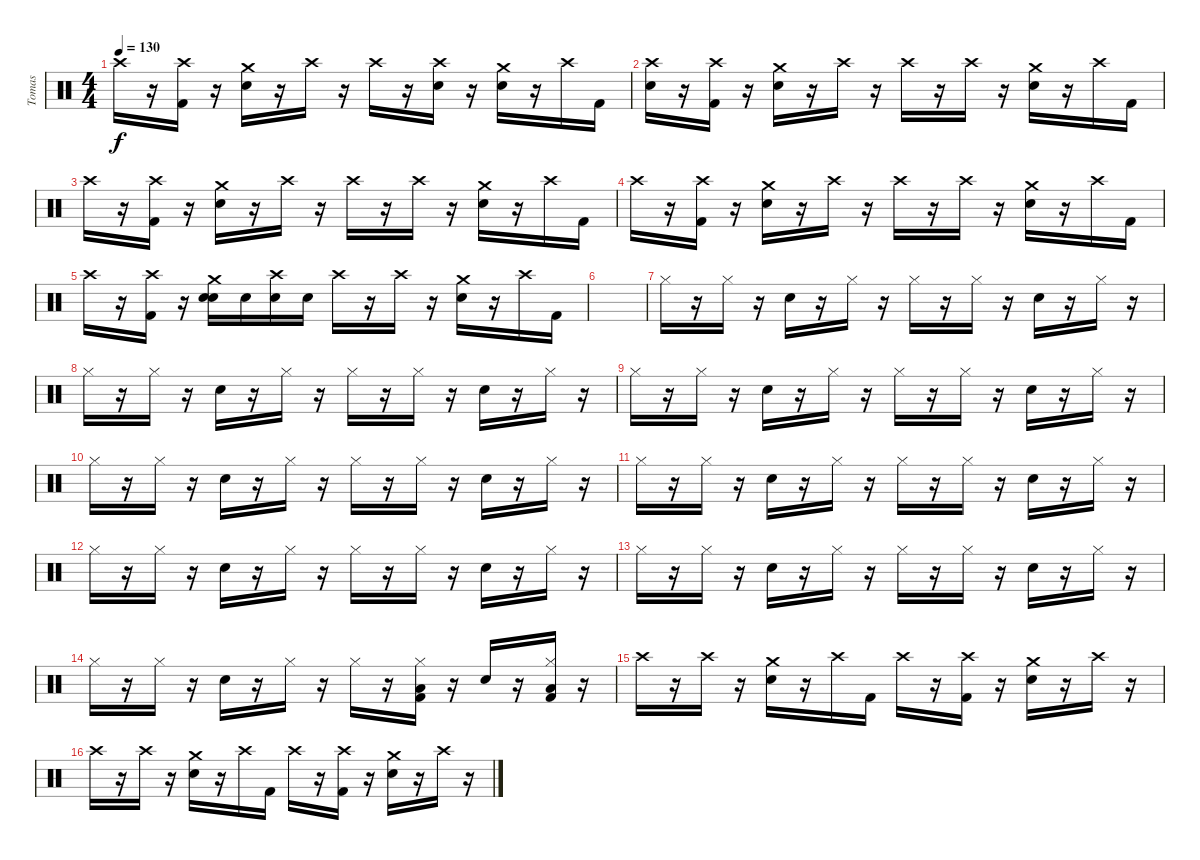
\track ("Tomas" "Tomas") {instrument percussion}
\staff {score}
\articulation defaults
\ts (4 4)
\tempo 130
\clef neutral
\ks c "Crash high (hit)".16{dy f}
r.16 ("Kick (hit) 2" "Crash high (hit)").16 r.16 ("Electric Snare (hit)" "Crash medium (hit)").16 r.16 "Crash high (hit)".16 r.16 "Crash high (hit)".16 r.16 ("Snare (hit) 2" "Crash high (hit)").16 r.16 ("Electric Snare (hit)" "Crash medium (hit)").16 r.16 "Crash high (hit)".16 "Kick (hit) 2".16 |
("Snare (hit) 2" "Crash high (hit)").16 r.16 ("Kick (hit) 2" "Crash high (hit)").16 r.16 ("Electric Snare (hit)" "Crash medium (hit)").16 r.16 "Crash high (hit)".16 r.16 "Crash high (hit)".16 r.16 "Crash high (hit)".16 r.16 ("Electric Snare (hit)" "Crash medium (hit)").16 r.16 "Crash high (hit)".16 "Kick (hit) 2".16 |
"Crash high (hit)".16 r.16 ("Kick (hit) 2" "Crash high (hit)").16 r.16 ("Electric Snare (hit)" "Crash medium (hit)").16 r.16 "Crash high (hit)".16 r.16 "Crash high (hit)".16 r.16 "Crash high (hit)".16 r.16 ("Electric Snare (hit)" "Crash medium (hit)").16 r.16 "Crash high (hit)".16 "Kick (hit) 2".16 |
"Crash high (hit)".16 r.16 ("Kick (hit) 2" "Crash high (hit)").16 r.16 ("Electric Snare (hit)" "Crash medium (hit)").16 r.16 "Crash high (hit)".16 r.16 "Crash high (hit)".16 r.16 "Crash high (hit)".16 r.16 ("Electric Snare (hit)" "Crash medium (hit)").16 r.16 "Crash high (hit)".16 "Kick (hit) 2".16 |
"Crash high (hit)".16 r.16 ("Kick (hit) 2" "Crash high (hit)").16 r.16 ("Electric Snare (hit)" "Crash medium (hit)" "Snare (hit) 2").16 "Snare (hit) 2".16 ("Crash high (hit)" "Snare (hit) 2").16 "Snare (hit) 2".16 "Crash high (hit)".16 r.16 "Crash high (hit)".16 r.16 ("Electric Snare (hit)" "Crash medium (hit)").16 r.16 "Crash high (hit)".16 "Kick (hit) 2".16 |
|
"Hi-Hat (closed)".16 r.16 "Hi-Hat (closed)".16 r.16 "Electric Snare (hit)".16 r.16 "Hi-Hat (closed)".16 r.16 "Hi-Hat (closed)".16 r.16 "Hi-Hat (closed)".16 r.16 "Electric Snare (hit)".16 r.16 "Hi-Hat (closed)".16 r.16 |
"Hi-Hat (closed)".16 r.16 "Hi-Hat (closed)".16 r.16 "Electric Snare (hit)".16 r.16 "Hi-Hat (closed)".16 r.16 "Hi-Hat (closed)".16 r.16 "Hi-Hat (closed)".16 r.16 "Electric Snare (hit)".16 r.16 "Hi-Hat (closed)".16 r.16 |
"Hi-Hat (closed)".16 r.16 "Hi-Hat (closed)".16 r.16 "Electric Snare (hit)".16 r.16 "Hi-Hat (closed)".16 r.16 "Hi-Hat (closed)".16 r.16 "Hi-Hat (closed)".16 r.16 "Electric Snare (hit)".16 r.16 "Hi-Hat (closed)".16 r.16 |
"Hi-Hat (closed)".16 r.16 "Hi-Hat (closed)".16 r.16 "Electric Snare (hit)".16 r.16 "Hi-Hat (closed)".16 r.16 "Hi-Hat (closed)".16 r.16 "Hi-Hat (closed)".16 r.16 "Electric Snare (hit)".16 r.16 "Hi-Hat (closed)".16 r.16 |
"Hi-Hat (closed)".16 r.16 "Hi-Hat (closed)".16 r.16 "Electric Snare (hit)".16 r.16 "Hi-Hat (closed)".16 r.16 "Hi-Hat (closed)".16 r.16 "Hi-Hat (closed)".16 r.16 "Electric Snare (hit)".16 r.16 "Hi-Hat (closed)".16 r.16 |
"Hi-Hat (closed)".16 r.16 "Hi-Hat (closed)".16 r.16 "Electric Snare (hit)".16 r.16 "Hi-Hat (closed)".16 r.16 "Hi-Hat (closed)".16 r.16 "Hi-Hat (closed)".16 r.16 "Electric Snare (hit)".16 r.16 "Hi-Hat (closed)".16 r.16 |
"Hi-Hat (closed)".16 r.16 "Hi-Hat (closed)".16 r.16 "Electric Snare (hit)".16 r.16 "Hi-Hat (closed)".16 r.16 "Hi-Hat (closed)".16 r.16 "Hi-Hat (closed)".16 r.16 "Electric Snare (hit)".16 r.16 "Hi-Hat (closed)".16 r.16 |
"Hi-Hat (closed)".16 r.16 "Hi-Hat (closed)".16 r.16 "Electric Snare (hit)".16 r.16 "Hi-Hat (closed)".16 r.16 "Hi-Hat (closed)".16 r.16 ("Hi-Hat (closed)" "Kick (hit) 2" "Low Tom (hit)").16 r.16 "Electric Snare (hit)".16 r.16 ("Hi-Hat (closed)" "Kick (hit) 2" "Low Tom (hit)").16 r.16 |
"Crash high (hit)".16 r.16 "Crash high (hit)".16 r.16 ("Electric Snare (hit)" "Crash medium (hit)").16 r.16 "Crash high (hit)".16 "Kick (hit) 2".16 "Crash high (hit)".16 r.16 ("Kick (hit) 2" "Crash high (hit)").16 r.16 ("Electric Snare (hit)" "Crash medium (hit)").16 r.16 "Crash high (hit)".16 r.16 |
"Crash high (hit)".16 r.16 "Crash high (hit)".16 r.16 ("Electric Snare (hit)" "Crash medium (hit)").16 r.16 "Crash high (hit)".16 "Kick (hit) 2".16 "Crash high (hit)".16 r.16 ("Kick (hit) 2" "Crash high (hit)").16 r.16 ("Electric Snare (hit)" "Crash medium (hit)").16 r.16 "Crash high (hit)".16 r.16
